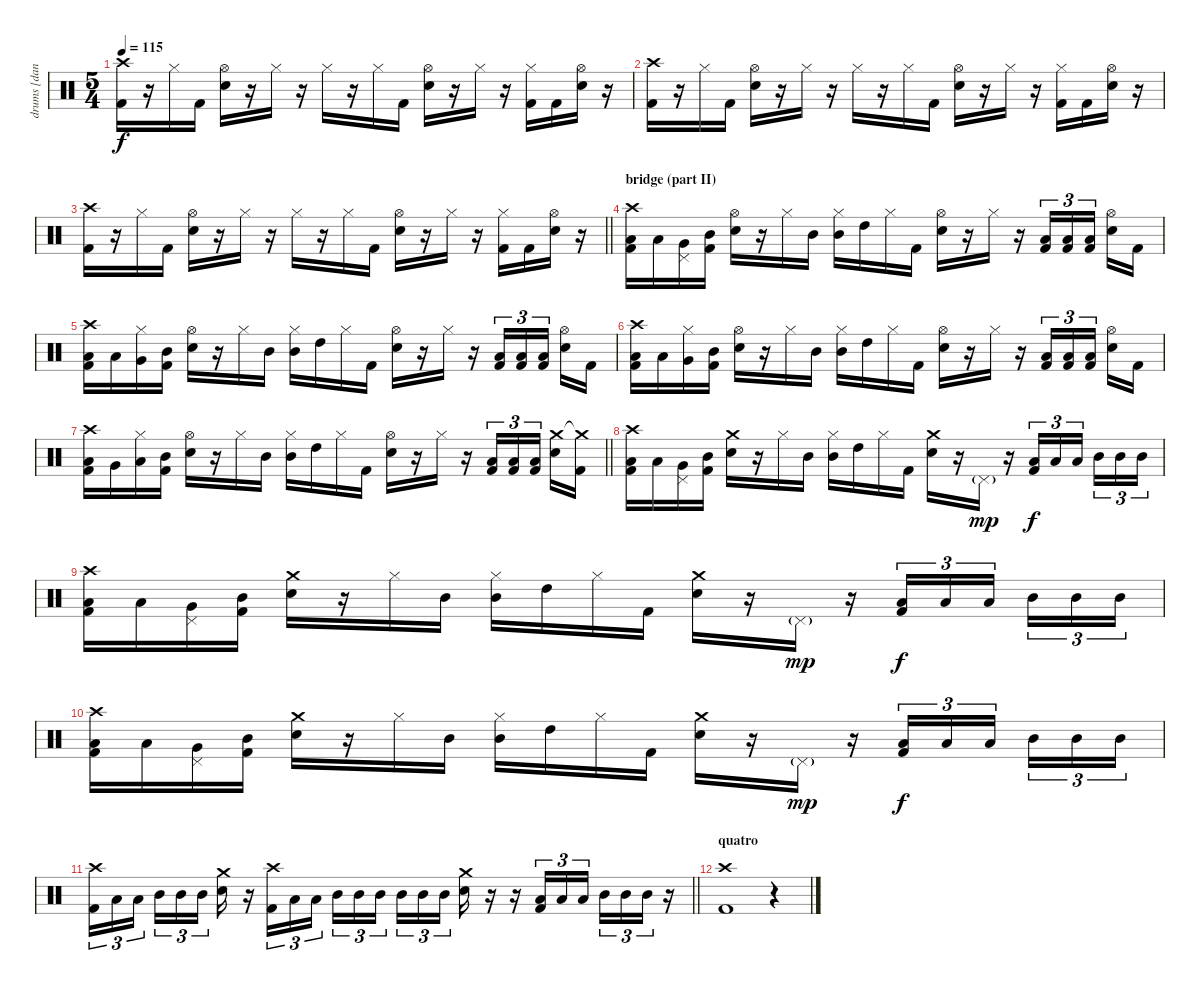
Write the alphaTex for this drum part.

\track ("drums [danny carey]" "drums [dan") {instrument percussion}
\staff {score}
\articulation defaults
\ts (5 4)
\tempo 115
\clef neutral
\ks c
("Crash high (hit)" "Kick (hit) 2").16{dy f} r.16 "Hi-Hat (closed)".16 "Kick (hit) 2".16 ("Hi-Hat (open)" "Electric Snare (hit)").16 r.16 "Hi-Hat (closed)".16 r.16 "Hi-Hat (closed)".16 r.16 "Hi-Hat (closed)".16 "Kick (hit) 2".16 ("Hi-Hat (open)" "Electric Snare (hit)").16 r.16 "Hi-Hat (closed)".16 r.16 ("Hi-Hat (closed)" "Kick (hit) 2").16 "Kick (hit) 2".16 ("Hi-Hat (open)" "Electric Snare (hit)").16 r.16 |
("Crash high (hit)" "Kick (hit) 2").16 r.16 "Hi-Hat (closed)".16 "Kick (hit) 2".16 ("Hi-Hat (open)" "Electric Snare (hit)").16 r.16 "Hi-Hat (closed)".16 r.16 "Hi-Hat (closed)".16 r.16 "Hi-Hat (closed)".16 "Kick (hit) 2".16 ("Hi-Hat (open)" "Electric Snare (hit)").16 r.16 "Hi-Hat (closed)".16 r.16 ("Hi-Hat (closed)" "Kick (hit) 2").16 "Kick (hit) 2".16 ("Hi-Hat (open)" "Electric Snare (hit)").16 r.16 |
\barLineRight lightlight
("Crash high (hit)" "Kick (hit) 2").16 r.16 "Hi-Hat (closed)".16 "Kick (hit) 2".16 ("Hi-Hat (open)" "Electric Snare (hit)").16 r.16 "Hi-Hat (closed)".16 r.16 "Hi-Hat (closed)".16 r.16 "Hi-Hat (closed)".16 "Kick (hit) 2".16 ("Hi-Hat (open)" "Electric Snare (hit)").16 r.16 "Hi-Hat (closed)".16 r.16 ("Hi-Hat (closed)" "Kick (hit) 2").16 "Kick (hit) 2".16 ("Hi-Hat (open)" "Electric Snare (hit)").16 r.16 |
\section ("" "bridge (part II)")
("Crash high (hit)" "Low Tom (hit)" "Kick (hit) 2").16 "Low Tom (hit)".16 ("Pedal Hi-Hat (hit)" "Very Low Tom (hit)").16 ("Mid Tom (hit)" "Kick (hit) 2").16 ("Hi-Hat (open)" "Electric Snare (hit)").16 r.16 "Hi-Hat (closed)".16 "Mid Tom (hit)".16 ("Hi-Hat (closed)" "Mid Tom (hit)").16 "High Tom (hit)".16 "Hi-Hat (closed)".16 "Kick (hit) 2".16 ("Hi-Hat (open)" "Electric Snare (hit)").16 r.16 "Hi-Hat (closed)".16 r.16 ("Low Tom (hit)" "Kick (hit) 2").16{tu (3 2)} ("Low Tom (hit)" "Kick (hit) 2").16{tu (3 2)} ("Low Tom (hit)" "Kick (hit) 2").16{tu (3 2) beam splitsecondary} ("Hi-Hat (open)" "Electric Snare (hit)").16 "Kick (hit) 2".16 |
("Crash high (hit)" "Low Tom (hit)" "Kick (hit) 2").16 "Low Tom (hit)".16 ("Hi-Hat (closed)" "Very Low Tom (hit)").16 ("Mid Tom (hit)" "Kick (hit) 2").16 ("Hi-Hat (open)" "Electric Snare (hit)").16 r.16 "Hi-Hat (closed)".16 "Mid Tom (hit)".16 ("Hi-Hat (closed)" "Mid Tom (hit)").16 "High Tom (hit)".16 "Hi-Hat (closed)".16 "Kick (hit) 2".16 ("Hi-Hat (open)" "Electric Snare (hit)").16 r.16 "Hi-Hat (closed)".16 r.16 ("Low Tom (hit)" "Kick (hit) 2").16{tu (3 2)} ("Low Tom (hit)" "Kick (hit) 2").16{tu (3 2)} ("Low Tom (hit)" "Kick (hit) 2").16{tu (3 2) beam splitsecondary} ("Hi-Hat (open)" "Electric Snare (hit)").16 "Kick (hit) 2".16 |
("Crash high (hit)" "Low Tom (hit)" "Kick (hit) 2").16 "Low Tom (hit)".16 ("Hi-Hat (closed)" "Very Low Tom (hit)").16 ("Mid Tom (hit)" "Kick (hit) 2").16 ("Hi-Hat (open)" "Electric Snare (hit)").16 r.16 "Hi-Hat (closed)".16 "Mid Tom (hit)".16 ("Hi-Hat (closed)" "Mid Tom (hit)").16 "High Tom (hit)".16 "Hi-Hat (closed)".16 "Kick (hit) 2".16 ("Hi-Hat (open)" "Electric Snare (hit)").16 r.16 "Hi-Hat (closed)".16 r.16 ("Low Tom (hit)" "Kick (hit) 2").16{tu (3 2)} ("Low Tom (hit)" "Kick (hit) 2").16{tu (3 2)} ("Low Tom (hit)" "Kick (hit) 2").16{tu (3 2) beam splitsecondary} ("Hi-Hat (open)" "Electric Snare (hit)").16 "Kick (hit) 2".16 |
\barLineRight lightlight
("Crash high (hit)" "Low Tom (hit)" "Kick (hit) 2").16 "Very Low Tom (hit)".16 ("Hi-Hat (closed)" "Low Tom (hit)").16 ("Mid Tom (hit)" "Kick (hit) 2").16 ("Hi-Hat (open)" "Electric Snare (hit)").16 r.16 "Hi-Hat (closed)".16 "Mid Tom (hit)".16 ("Hi-Hat (closed)" "Mid Tom (hit)").16 "High Tom (hit)".16 "Hi-Hat (closed)".16 "Kick (hit) 2".16 ("Hi-Hat (open)" "Electric Snare (hit)").16 r.16 "Hi-Hat (closed)".16 r.16 ("Low Tom (hit)" "Kick (hit) 2").16{tu (3 2)} ("Low Tom (hit)" "Kick (hit) 2").16{tu (3 2)} ("Low Tom (hit)" "Kick (hit) 2").16{tu (3 2) beam splitsecondary} ("Crash medium (hit)" "Electric Snare (hit)").16 ("Crash medium (hit)"{t} "Kick (hit) 2").16 |
("Crash high (hit)" "Low Tom (hit)" "Kick (hit) 2").16 "Low Tom (hit)".16 ("Pedal Hi-Hat (hit)" "Very Low Tom (hit)").16 ("Mid Tom (hit)" "Kick (hit) 2").16 ("Crash medium (hit)" "Electric Snare (hit)").16 r.16 "Hi-Hat (closed)".16 "Mid Tom (hit)".16 ("Hi-Hat (closed)" "Mid Tom (hit)").16 "High Tom (hit)".16 "Hi-Hat (closed)".16 "Kick (hit) 2".16 ("Crash medium (hit)" "Electric Snare (hit)").16 r.16 "Pedal Hi-Hat (hit)"{g}.16{dy mp} r.16 ("Low Tom (hit)" "Kick (hit) 2").16{tu (3 2) dy f} "Low Tom (hit)".16{tu (3 2)} "Low Tom (hit)".16{tu (3 2) beam splitsecondary} "Mid Tom (hit)".16{tu (3 2)} "Mid Tom (hit)".16{tu (3 2)} "Mid Tom (hit)".16{tu (3 2)} |
("Crash high (hit)" "Low Tom (hit)" "Kick (hit) 2").16 "Low Tom (hit)".16 ("Pedal Hi-Hat (hit)" "Very Low Tom (hit)").16 ("Mid Tom (hit)" "Kick (hit) 2").16 ("Crash medium (hit)" "Electric Snare (hit)").16 r.16 "Hi-Hat (closed)".16 "Mid Tom (hit)".16 ("Hi-Hat (closed)" "Mid Tom (hit)").16 "High Tom (hit)".16 "Hi-Hat (closed)".16 "Kick (hit) 2".16 ("Crash medium (hit)" "Electric Snare (hit)").16 r.16 "Pedal Hi-Hat (hit)"{g}.16{dy mp} r.16 ("Low Tom (hit)" "Kick (hit) 2").16{tu (3 2) dy f} "Low Tom (hit)".16{tu (3 2)} "Low Tom (hit)".16{tu (3 2) beam splitsecondary} "Mid Tom (hit)".16{tu (3 2)} "Mid Tom (hit)".16{tu (3 2)} "Mid Tom (hit)".16{tu (3 2)} |
("Crash high (hit)" "Low Tom (hit)" "Kick (hit) 2").16 "Low Tom (hit)".16 ("Pedal Hi-Hat (hit)" "Very Low Tom (hit)").16 ("Mid Tom (hit)" "Kick (hit) 2").16 ("Crash medium (hit)" "Electric Snare (hit)").16 r.16 "Hi-Hat (closed)".16 "Mid Tom (hit)".16 ("Hi-Hat (closed)" "Mid Tom (hit)").16 "High Tom (hit)".16 "Hi-Hat (closed)".16 "Kick (hit) 2".16 ("Crash medium (hit)" "Electric Snare (hit)").16 r.16 "Pedal Hi-Hat (hit)"{g}.16{dy mp} r.16 ("Low Tom (hit)" "Kick (hit) 2").16{tu (3 2) dy f} "Low Tom (hit)".16{tu (3 2)} "Low Tom (hit)".16{tu (3 2) beam splitsecondary} "Mid Tom (hit)".16{tu (3 2)} "Mid Tom (hit)".16{tu (3 2)} "Mid Tom (hit)".16{tu (3 2)} |
\barLineRight lightlight
("Crash high (hit)" "Kick (hit) 2").16{tu (3 2)} "Low Tom (hit)".16{tu (3 2)} "Low Tom (hit)".16{tu (3 2) beam splitsecondary} "Mid Tom (hit)".16{tu (3 2)} "Mid Tom (hit)".16{tu (3 2)} "Mid Tom (hit)".16{tu (3 2)} ("Crash medium (hit)" "Electric Snare (hit)").16 r.16 ("Crash high (hit)" "Kick (hit) 2").16{tu (3 2)} "Low Tom (hit)".16{tu (3 2)} "Low Tom (hit)".16{tu (3 2)} "Mid Tom (hit)".16{tu (3 2)} "Mid Tom (hit)".16{tu (3 2)} "Mid Tom (hit)".16{tu (3 2) beam splitsecondary} "Mid Tom (hit)".16{tu (3 2)} "Mid Tom (hit)".16{tu (3 2)} "Mid Tom (hit)".16{tu (3 2)} ("Crash medium (hit)" "Electric Snare (hit)").16 r.16 r.16 ("Low Tom (hit)" "Kick (hit) 2").16{tu (3 2)} "Low Tom (hit)".16{tu (3 2)} "Low Tom (hit)".16{tu (3 2) beam splitsecondary} "Mid Tom (hit)".16{tu (3 2)} "Mid Tom (hit)".16{tu (3 2)} "Mid Tom (hit)".16{tu (3 2)} r.16 |
\section ("" "quatro")
("Crash high (hit)" "Kick (hit) 2").1 r.4
